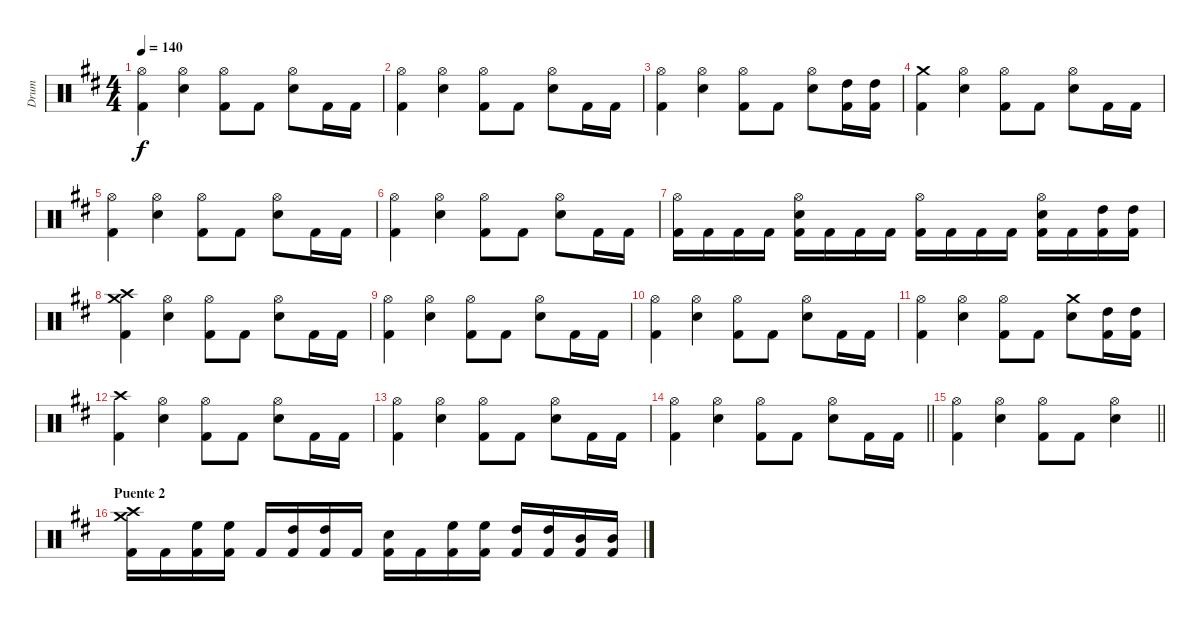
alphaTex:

\track ("Drum" "Drum") {instrument percussion}
\staff {score}
\articulation defaults
\ts (4 4)
\tempo 140
\clef neutral
\ks bminor
("Hi-Hat (open)" "Kick (hit) 2").4{dy f} ("Hi-Hat (open)" "Snare (hit) 2").4 ("Hi-Hat (open)" "Kick (hit) 2").8 "Kick (hit) 2".8 ("Hi-Hat (open)" "Snare (hit) 2").8 "Kick (hit) 2".16 "Kick (hit) 2".16 |
("Hi-Hat (open)" "Kick (hit) 2").4 ("Hi-Hat (open)" "Snare (hit) 2").4 ("Hi-Hat (open)" "Kick (hit) 2").8 "Kick (hit) 2".8 ("Hi-Hat (open)" "Snare (hit) 2").8 "Kick (hit) 2".16 "Kick (hit) 2".16 |
("Hi-Hat (open)" "Kick (hit) 2").4 ("Hi-Hat (open)" "Snare (hit) 2").4 ("Hi-Hat (open)" "Kick (hit) 2").8 "Kick (hit) 2".8 ("Hi-Hat (open)" "Snare (hit) 2").8 ("High Tom (hit)" "Kick (hit) 2").16 ("High Tom (hit)" "Kick (hit) 2").16 |
("Crash medium (hit)" "Kick (hit) 2").4 ("Hi-Hat (open)" "Snare (hit) 2").4 ("Hi-Hat (open)" "Kick (hit) 2").8 "Kick (hit) 2".8 ("Hi-Hat (open)" "Snare (hit) 2").8 "Kick (hit) 2".16 "Kick (hit) 2".16 |
("Hi-Hat (open)" "Kick (hit) 2").4 ("Hi-Hat (open)" "Snare (hit) 2").4 ("Hi-Hat (open)" "Kick (hit) 2").8 "Kick (hit) 2".8 ("Hi-Hat (open)" "Snare (hit) 2").8 "Kick (hit) 2".16 "Kick (hit) 2".16 |
("Hi-Hat (open)" "Kick (hit) 2").4 ("Hi-Hat (open)" "Snare (hit) 2").4 ("Hi-Hat (open)" "Kick (hit) 2").8 "Kick (hit) 2".8 ("Hi-Hat (open)" "Snare (hit) 2").8 "Kick (hit) 2".16 "Kick (hit) 2".16 |
("Hi-Hat (open)" "Kick (hit) 2").16 "Kick (hit) 2".16 "Kick (hit) 2".16 "Kick (hit) 2".16 ("Hi-Hat (open)" "Snare (hit) 2" "Kick (hit) 2").16 "Kick (hit) 2".16 "Kick (hit) 2".16 "Kick (hit) 2".16 ("Hi-Hat (open)" "Kick (hit) 2").16 "Kick (hit) 2".16 "Kick (hit) 2".16 "Kick (hit) 2".16 ("Hi-Hat (open)" "Snare (hit) 2" "Kick (hit) 2").16 "Kick (hit) 2".16 ("High Tom (hit)" "Kick (hit) 2").16 ("High Tom (hit)" "Kick (hit) 2").16 |
("Crash high (hit)" "Crash medium (hit)" "Kick (hit) 2").4 ("Hi-Hat (open)" "Snare (hit) 2").4 ("Hi-Hat (open)" "Kick (hit) 2").8 "Kick (hit) 2".8 ("Hi-Hat (open)" "Snare (hit) 2").8 "Kick (hit) 2".16 "Kick (hit) 2".16 |
("Hi-Hat (open)" "Kick (hit) 2").4 ("Hi-Hat (open)" "Snare (hit) 2").4 ("Hi-Hat (open)" "Kick (hit) 2").8 "Kick (hit) 2".8 ("Hi-Hat (open)" "Snare (hit) 2").8 "Kick (hit) 2".16 "Kick (hit) 2".16 |
("Hi-Hat (open)" "Kick (hit) 2").4 ("Hi-Hat (open)" "Snare (hit) 2").4 ("Hi-Hat (open)" "Kick (hit) 2").8 "Kick (hit) 2".8 ("Hi-Hat (open)" "Snare (hit) 2").8 "Kick (hit) 2".16 "Kick (hit) 2".16 |
("Hi-Hat (open)" "Kick (hit) 2").4 ("Hi-Hat (open)" "Snare (hit) 2").4 ("Hi-Hat (open)" "Kick (hit) 2").8 "Kick (hit) 2".8 ("Crash medium (hit)" "Snare (hit) 2").8 ("High Tom (hit)" "Kick (hit) 2").16 ("High Tom (hit)" "Kick (hit) 2").16 |
("Crash high (hit)" "Kick (hit) 2").4 ("Hi-Hat (open)" "Snare (hit) 2").4 ("Hi-Hat (open)" "Kick (hit) 2").8 "Kick (hit) 2".8 ("Hi-Hat (open)" "Snare (hit) 2").8 "Kick (hit) 2".16 "Kick (hit) 2".16 |
("Hi-Hat (open)" "Kick (hit) 2").4 ("Hi-Hat (open)" "Snare (hit) 2").4 ("Hi-Hat (open)" "Kick (hit) 2").8 "Kick (hit) 2".8 ("Hi-Hat (open)" "Snare (hit) 2").8 "Kick (hit) 2".16 "Kick (hit) 2".16 |
\barLineRight lightlight
("Hi-Hat (open)" "Kick (hit) 2").4 ("Hi-Hat (open)" "Snare (hit) 2").4 ("Hi-Hat (open)" "Kick (hit) 2").8 "Kick (hit) 2".8 ("Hi-Hat (open)" "Snare (hit) 2").8 "Kick (hit) 2".16 "Kick (hit) 2".16 |
\barLineRight lightlight
("Hi-Hat (open)" "Kick (hit) 2").4 ("Hi-Hat (open)" "Snare (hit) 2").4 ("Hi-Hat (open)" "Kick (hit) 2").8 "Kick (hit) 2".8 ("Hi-Hat (open)" "Snare (hit) 2").4 |
\section ("" "Puente 2")
("Crash medium (hit)" "Crash high (hit)" "Kick (hit) 2").16 "Kick (hit) 2".16 ("High Floor Tom (hit)" "Kick (hit) 2").16 ("High Floor Tom (hit)" "Kick (hit) 2").16 "Kick (hit) 2".16 ("High Tom (hit)" "Kick (hit) 2").16 ("High Tom (hit)" "Kick (hit) 2").16 "Kick (hit) 2".16 ("Snare (hit) 2" "Kick (hit) 2").16 "Kick (hit) 2".16 ("High Floor Tom (hit)" "Kick (hit) 2").16 ("High Floor Tom (hit)" "Kick (hit) 2").16 ("High Tom (hit)" "Kick (hit) 2").16 ("High Tom (hit)" "Kick (hit) 2").16 ("Mid Tom (hit)" "Kick (hit) 2").16 ("Mid Tom (hit)" "Kick (hit) 2").16
